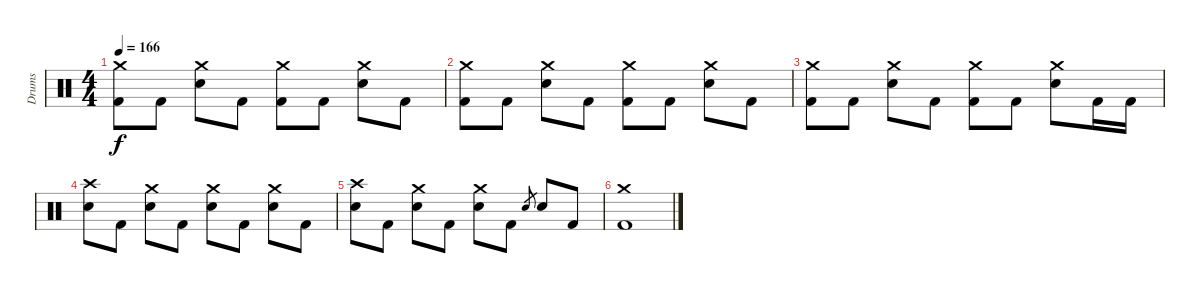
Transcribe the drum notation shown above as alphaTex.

\track ("Drums" "Drums") {instrument percussion}
\staff {score}
\articulation defaults
\ts (4 4)
\tempo 166
\clef neutral
\ks c
("Crash medium (hit)" "Kick (hit) 2").8{dy f} "Kick (hit) 2".8 ("Crash medium (hit)" "Electric Snare (hit)").8 "Kick (hit) 2".8 ("Crash medium (hit)" "Kick (hit) 2").8 "Kick (hit) 2".8 ("Crash medium (hit)" "Electric Snare (hit)").8 "Kick (hit) 2".8 |
("Crash medium (hit)" "Kick (hit) 2").8 "Kick (hit) 2".8 ("Crash medium (hit)" "Electric Snare (hit)").8 "Kick (hit) 2".8 ("Crash medium (hit)" "Kick (hit) 2").8 "Kick (hit) 2".8 ("Crash medium (hit)" "Electric Snare (hit)").8 "Kick (hit) 2".8 |
("Crash medium (hit)" "Kick (hit) 2").8 "Kick (hit) 2".8 ("Crash medium (hit)" "Electric Snare (hit)").8 "Kick (hit) 2".8 ("Crash medium (hit)" "Kick (hit) 2").8 "Kick (hit) 2".8 ("Crash medium (hit)" "Electric Snare (hit)").8 "Kick (hit) 2".16 "Kick (hit) 2".16 |
("Crash high (hit)" "Electric Snare (hit)").8 "Kick (hit) 2".8 ("Crash medium (hit)" "Electric Snare (hit)").8 "Kick (hit) 2".8 ("Crash medium (hit)" "Electric Snare (hit)").8 "Kick (hit) 2".8 ("Crash medium (hit)" "Electric Snare (hit)").8 "Kick (hit) 2".8 |
("Crash high (hit)" "Electric Snare (hit)").8 "Kick (hit) 2".8 ("Crash medium (hit)" "Electric Snare (hit)").8 "Kick (hit) 2".8 ("Crash medium (hit)" "Electric Snare (hit)").8 "Kick (hit) 2".8 "Electric Snare (hit)".8{gr} "Electric Snare (hit)".8 "Kick (hit) 2".8 |
("Crash medium (hit)" "Kick (hit) 2").1
